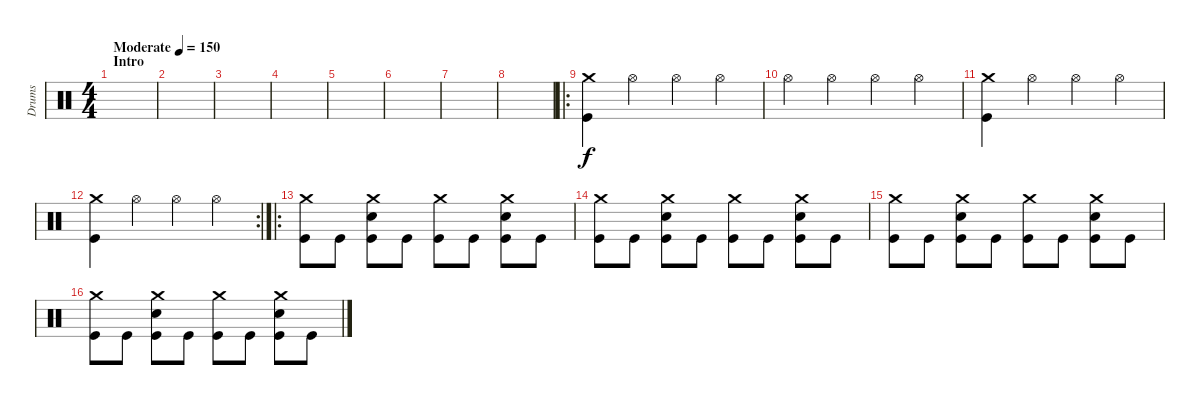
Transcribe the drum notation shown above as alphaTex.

\track ("Drums" "Drums") {instrument percussion}
\staff {score}
\articulation defaults
\ts (4 4)
\section ("" "Intro")
\tempo (150 "Moderate")
\clef neutral
\ks c
|
|
|
|
|
|
|
|
\ro
("Crash medium (hit)" "Kick (hit)").4 "Hi-Hat (open)".4 "Hi-Hat (open)".4 "Hi-Hat (open)".4 |
"Hi-Hat (open)".4 "Hi-Hat (open)".4 "Hi-Hat (open)".4 "Hi-Hat (open)".4 |
("Crash medium (hit)" "Kick (hit)").4 "Hi-Hat (open)".4 "Hi-Hat (open)".4 "Hi-Hat (open)".4 |
\rc 2
("Crash medium (hit)" "Kick (hit)").4 "Hi-Hat (open)".4 "Hi-Hat (open)".4 "Hi-Hat (open)".4 |
\ro
("Crash medium (hit)" "Kick (hit)").8 "Kick (hit)".8 ("Crash medium (hit)" "Snare (hit) 2" "Kick (hit)").8 "Kick (hit)".8 ("Crash medium (hit)" "Kick (hit)").8 "Kick (hit)".8 ("Crash medium (hit)" "Snare (hit) 2" "Kick (hit)").8 "Kick (hit)".8 |
("Crash medium (hit)" "Kick (hit)").8 "Kick (hit)".8 ("Crash medium (hit)" "Snare (hit) 2" "Kick (hit)").8 "Kick (hit)".8 ("Crash medium (hit)" "Kick (hit)").8 "Kick (hit)".8 ("Crash medium (hit)" "Snare (hit) 2" "Kick (hit)").8 "Kick (hit)".8 |
("Crash medium (hit)" "Kick (hit)").8 "Kick (hit)".8 ("Crash medium (hit)" "Snare (hit) 2" "Kick (hit)").8 "Kick (hit)".8 ("Crash medium (hit)" "Kick (hit)").8 "Kick (hit)".8 ("Crash medium (hit)" "Snare (hit) 2" "Kick (hit)").8 "Kick (hit)".8 |
("Crash medium (hit)" "Kick (hit)").8 "Kick (hit)".8 ("Crash medium (hit)" "Snare (hit) 2" "Kick (hit)").8 "Kick (hit)".8 ("Crash medium (hit)" "Kick (hit)").8 "Kick (hit)".8 ("Crash medium (hit)" "Snare (hit) 2" "Kick (hit)").8 "Kick (hit)".8
